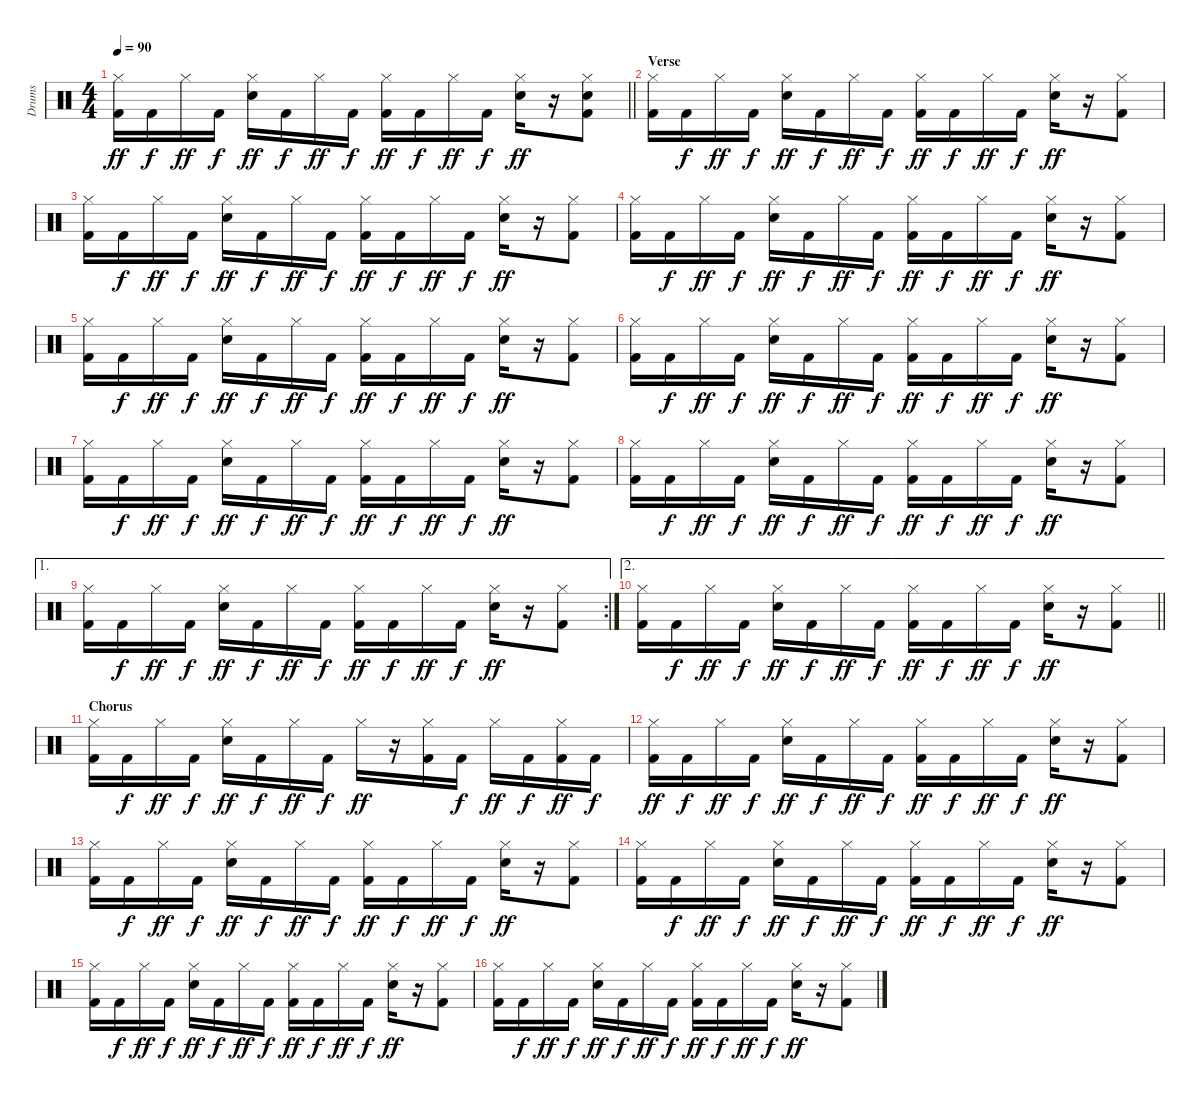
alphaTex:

\track ("Drums" "Drums") {instrument percussion}
\staff {score}
\articulation defaults
\ts (4 4)
\tempo 90
\clef neutral
\barLineRight lightlight
\ks c
("Hi-Hat (closed)" "Kick (hit) 2").16{dy ff} "Kick (hit) 2".16{dy f} "Hi-Hat (closed)".16{dy ff} "Kick (hit) 2".16{dy f} ("Hi-Hat (closed)" "Electric Snare (hit)").16{dy ff} "Kick (hit) 2".16{dy f} "Hi-Hat (closed)".16{dy ff} "Kick (hit) 2".16{dy f} ("Hi-Hat (closed)" "Kick (hit) 2").16{dy ff} "Kick (hit) 2".16{dy f} "Hi-Hat (closed)".16{dy ff} "Kick (hit) 2".16{dy f} ("Hi-Hat (closed)" "Electric Snare (hit)").16{dy ff} r.16 ("Hi-Hat (closed)" "Electric Snare (hit)" "Kick (hit) 2").8 |
\section ("" "Verse")
("Hi-Hat (closed)" "Kick (hit) 2").16 "Kick (hit) 2".16{dy f} "Hi-Hat (closed)".16{dy ff} "Kick (hit) 2".16{dy f} ("Hi-Hat (closed)" "Electric Snare (hit)").16{dy ff} "Kick (hit) 2".16{dy f} "Hi-Hat (closed)".16{dy ff} "Kick (hit) 2".16{dy f} ("Hi-Hat (closed)" "Kick (hit) 2").16{dy ff} "Kick (hit) 2".16{dy f} "Hi-Hat (closed)".16{dy ff} "Kick (hit) 2".16{dy f} ("Hi-Hat (closed)" "Electric Snare (hit)").16{dy ff} r.16 ("Hi-Hat (closed)" "Kick (hit) 2").8 |
("Hi-Hat (closed)" "Kick (hit) 2").16 "Kick (hit) 2".16{dy f} "Hi-Hat (closed)".16{dy ff} "Kick (hit) 2".16{dy f} ("Hi-Hat (closed)" "Electric Snare (hit)").16{dy ff} "Kick (hit) 2".16{dy f} "Hi-Hat (closed)".16{dy ff} "Kick (hit) 2".16{dy f} ("Hi-Hat (closed)" "Kick (hit) 2").16{dy ff} "Kick (hit) 2".16{dy f} "Hi-Hat (closed)".16{dy ff} "Kick (hit) 2".16{dy f} ("Hi-Hat (closed)" "Electric Snare (hit)").16{dy ff} r.16 ("Hi-Hat (closed)" "Kick (hit) 2").8 |
("Hi-Hat (closed)" "Kick (hit) 2").16 "Kick (hit) 2".16{dy f} "Hi-Hat (closed)".16{dy ff} "Kick (hit) 2".16{dy f} ("Hi-Hat (closed)" "Electric Snare (hit)").16{dy ff} "Kick (hit) 2".16{dy f} "Hi-Hat (closed)".16{dy ff} "Kick (hit) 2".16{dy f} ("Hi-Hat (closed)" "Kick (hit) 2").16{dy ff} "Kick (hit) 2".16{dy f} "Hi-Hat (closed)".16{dy ff} "Kick (hit) 2".16{dy f} ("Hi-Hat (closed)" "Electric Snare (hit)").16{dy ff} r.16 ("Hi-Hat (closed)" "Kick (hit) 2").8 |
("Hi-Hat (closed)" "Kick (hit) 2").16 "Kick (hit) 2".16{dy f} "Hi-Hat (closed)".16{dy ff} "Kick (hit) 2".16{dy f} ("Hi-Hat (closed)" "Electric Snare (hit)").16{dy ff} "Kick (hit) 2".16{dy f} "Hi-Hat (closed)".16{dy ff} "Kick (hit) 2".16{dy f} ("Hi-Hat (closed)" "Kick (hit) 2").16{dy ff} "Kick (hit) 2".16{dy f} "Hi-Hat (closed)".16{dy ff} "Kick (hit) 2".16{dy f} ("Hi-Hat (closed)" "Electric Snare (hit)").16{dy ff} r.16 ("Hi-Hat (closed)" "Kick (hit) 2").8 |
("Hi-Hat (closed)" "Kick (hit) 2").16 "Kick (hit) 2".16{dy f} "Hi-Hat (closed)".16{dy ff} "Kick (hit) 2".16{dy f} ("Hi-Hat (closed)" "Electric Snare (hit)").16{dy ff} "Kick (hit) 2".16{dy f} "Hi-Hat (closed)".16{dy ff} "Kick (hit) 2".16{dy f} ("Hi-Hat (closed)" "Kick (hit) 2").16{dy ff} "Kick (hit) 2".16{dy f} "Hi-Hat (closed)".16{dy ff} "Kick (hit) 2".16{dy f} ("Hi-Hat (closed)" "Electric Snare (hit)").16{dy ff} r.16 ("Hi-Hat (closed)" "Kick (hit) 2").8 |
("Hi-Hat (closed)" "Kick (hit) 2").16 "Kick (hit) 2".16{dy f} "Hi-Hat (closed)".16{dy ff} "Kick (hit) 2".16{dy f} ("Hi-Hat (closed)" "Electric Snare (hit)").16{dy ff} "Kick (hit) 2".16{dy f} "Hi-Hat (closed)".16{dy ff} "Kick (hit) 2".16{dy f} ("Hi-Hat (closed)" "Kick (hit) 2").16{dy ff} "Kick (hit) 2".16{dy f} "Hi-Hat (closed)".16{dy ff} "Kick (hit) 2".16{dy f} ("Hi-Hat (closed)" "Electric Snare (hit)").16{dy ff} r.16 ("Hi-Hat (closed)" "Kick (hit) 2").8 |
("Hi-Hat (closed)" "Kick (hit) 2").16 "Kick (hit) 2".16{dy f} "Hi-Hat (closed)".16{dy ff} "Kick (hit) 2".16{dy f} ("Hi-Hat (closed)" "Electric Snare (hit)").16{dy ff} "Kick (hit) 2".16{dy f} "Hi-Hat (closed)".16{dy ff} "Kick (hit) 2".16{dy f} ("Hi-Hat (closed)" "Kick (hit) 2").16{dy ff} "Kick (hit) 2".16{dy f} "Hi-Hat (closed)".16{dy ff} "Kick (hit) 2".16{dy f} ("Hi-Hat (closed)" "Electric Snare (hit)").16{dy ff} r.16 ("Hi-Hat (closed)" "Kick (hit) 2").8 |
\ae 1
\rc 2
("Hi-Hat (closed)" "Kick (hit) 2").16 "Kick (hit) 2".16{dy f} "Hi-Hat (closed)".16{dy ff} "Kick (hit) 2".16{dy f} ("Hi-Hat (closed)" "Electric Snare (hit)").16{dy ff} "Kick (hit) 2".16{dy f} "Hi-Hat (closed)".16{dy ff} "Kick (hit) 2".16{dy f} ("Hi-Hat (closed)" "Kick (hit) 2").16{dy ff} "Kick (hit) 2".16{dy f} "Hi-Hat (closed)".16{dy ff} "Kick (hit) 2".16{dy f} ("Hi-Hat (closed)" "Electric Snare (hit)").16{dy ff} r.16 ("Hi-Hat (closed)" "Kick (hit) 2").8 |
\ae 2
\barLineRight lightlight
("Hi-Hat (closed)" "Kick (hit) 2").16 "Kick (hit) 2".16{dy f} "Hi-Hat (closed)".16{dy ff} "Kick (hit) 2".16{dy f} ("Hi-Hat (closed)" "Electric Snare (hit)").16{dy ff} "Kick (hit) 2".16{dy f} "Hi-Hat (closed)".16{dy ff} "Kick (hit) 2".16{dy f} ("Hi-Hat (closed)" "Kick (hit) 2").16{dy ff} "Kick (hit) 2".16{dy f} "Hi-Hat (closed)".16{dy ff} "Kick (hit) 2".16{dy f} ("Hi-Hat (closed)" "Electric Snare (hit)").16{dy ff} r.16 ("Hi-Hat (closed)" "Kick (hit) 2").8 |
\section ("" "Chorus")
("Hi-Hat (closed)" "Kick (hit) 2").16 "Kick (hit) 2".16{dy f} "Hi-Hat (closed)".16{dy ff} "Kick (hit) 2".16{dy f} ("Hi-Hat (closed)" "Electric Snare (hit)").16{dy ff} "Kick (hit) 2".16{dy f} "Hi-Hat (closed)".16{dy ff} "Kick (hit) 2".16{dy f} "Hi-Hat (closed)".16{dy ff} r.16 ("Hi-Hat (closed)" "Kick (hit) 2").16 "Kick (hit) 2".16{dy f} "Hi-Hat (closed)".16{dy ff} "Kick (hit) 2".16{dy f} ("Hi-Hat (closed)" "Kick (hit) 2").16{dy ff} "Kick (hit) 2".16{dy f} |
("Hi-Hat (closed)" "Kick (hit) 2").16{dy ff} "Kick (hit) 2".16{dy f} "Hi-Hat (closed)".16{dy ff} "Kick (hit) 2".16{dy f} ("Hi-Hat (closed)" "Electric Snare (hit)").16{dy ff} "Kick (hit) 2".16{dy f} "Hi-Hat (closed)".16{dy ff} "Kick (hit) 2".16{dy f} ("Hi-Hat (closed)" "Kick (hit) 2").16{dy ff} "Kick (hit) 2".16{dy f} "Hi-Hat (closed)".16{dy ff} "Kick (hit) 2".16{dy f} ("Hi-Hat (closed)" "Electric Snare (hit)").16{dy ff} r.16 ("Hi-Hat (closed)" "Kick (hit) 2").8 |
("Hi-Hat (closed)" "Kick (hit) 2").16 "Kick (hit) 2".16{dy f} "Hi-Hat (closed)".16{dy ff} "Kick (hit) 2".16{dy f} ("Hi-Hat (closed)" "Electric Snare (hit)").16{dy ff} "Kick (hit) 2".16{dy f} "Hi-Hat (closed)".16{dy ff} "Kick (hit) 2".16{dy f} ("Hi-Hat (closed)" "Kick (hit) 2").16{dy ff} "Kick (hit) 2".16{dy f} "Hi-Hat (closed)".16{dy ff} "Kick (hit) 2".16{dy f} ("Hi-Hat (closed)" "Electric Snare (hit)").16{dy ff} r.16 ("Hi-Hat (closed)" "Kick (hit) 2").8 |
("Hi-Hat (closed)" "Kick (hit) 2").16 "Kick (hit) 2".16{dy f} "Hi-Hat (closed)".16{dy ff} "Kick (hit) 2".16{dy f} ("Hi-Hat (closed)" "Electric Snare (hit)").16{dy ff} "Kick (hit) 2".16{dy f} "Hi-Hat (closed)".16{dy ff} "Kick (hit) 2".16{dy f} ("Hi-Hat (closed)" "Kick (hit) 2").16{dy ff} "Kick (hit) 2".16{dy f} "Hi-Hat (closed)".16{dy ff} "Kick (hit) 2".16{dy f} ("Hi-Hat (closed)" "Electric Snare (hit)").16{dy ff} r.16 ("Hi-Hat (closed)" "Kick (hit) 2").8 |
("Hi-Hat (closed)" "Kick (hit) 2").16 "Kick (hit) 2".16{dy f} "Hi-Hat (closed)".16{dy ff} "Kick (hit) 2".16{dy f} ("Hi-Hat (closed)" "Electric Snare (hit)").16{dy ff} "Kick (hit) 2".16{dy f} "Hi-Hat (closed)".16{dy ff} "Kick (hit) 2".16{dy f} ("Hi-Hat (closed)" "Kick (hit) 2").16{dy ff} "Kick (hit) 2".16{dy f} "Hi-Hat (closed)".16{dy ff} "Kick (hit) 2".16{dy f} ("Hi-Hat (closed)" "Electric Snare (hit)").16{dy ff} r.16 ("Hi-Hat (closed)" "Kick (hit) 2").8 |
("Hi-Hat (closed)" "Kick (hit) 2").16 "Kick (hit) 2".16{dy f} "Hi-Hat (closed)".16{dy ff} "Kick (hit) 2".16{dy f} ("Hi-Hat (closed)" "Electric Snare (hit)").16{dy ff} "Kick (hit) 2".16{dy f} "Hi-Hat (closed)".16{dy ff} "Kick (hit) 2".16{dy f} ("Hi-Hat (closed)" "Kick (hit) 2").16{dy ff} "Kick (hit) 2".16{dy f} "Hi-Hat (closed)".16{dy ff} "Kick (hit) 2".16{dy f} ("Hi-Hat (closed)" "Electric Snare (hit)").16{dy ff} r.16 ("Hi-Hat (closed)" "Kick (hit) 2").8
